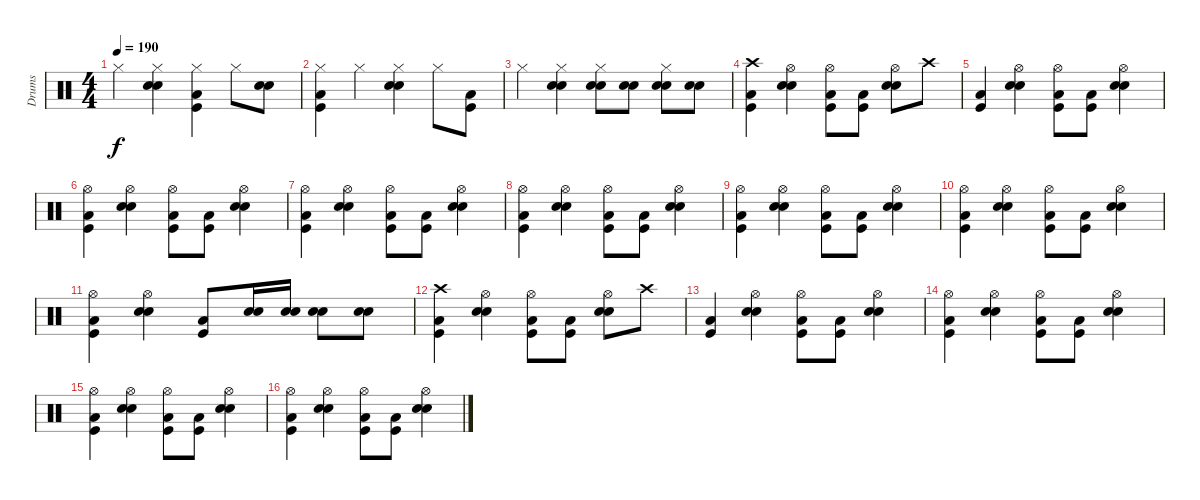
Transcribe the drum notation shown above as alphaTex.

\track ("Drums" "Drums") {instrument percussion}
\staff {score}
\articulation defaults
\ts (4 4)
\tempo 190
\clef neutral
\ks c "Hi-Hat (closed)".4{dy f}
("Hi-Hat (closed)" "Snare (hit) 2" "Electric Snare (hit)").4 ("Hi-Hat (closed)" "Kick (hit)" "Low Tom (hit)").4 "Hi-Hat (closed)".8 ("Snare (hit) 2" "Electric Snare (hit)").8 |
("Hi-Hat (closed)" "Kick (hit)" "Low Tom (hit)").4 "Hi-Hat (closed)".4 ("Hi-Hat (closed)" "Snare (hit) 2" "Electric Snare (hit)").4 "Hi-Hat (closed)".8 ("Kick (hit)" "Low Tom (hit)").8 |
"Hi-Hat (closed)".4 ("Hi-Hat (closed)" "Snare (hit) 2" "Electric Snare (hit)").4 ("Hi-Hat (closed)" "Snare (hit) 2" "Electric Snare (hit)").8 ("Snare (hit) 2" "Electric Snare (hit)").8 ("Hi-Hat (closed)" "Snare (hit) 2" "Electric Snare (hit)").8 ("Snare (hit) 2" "Electric Snare (hit)").8 |
("Crash high (hit)" "Kick (hit)" "Low Tom (hit)").4 ("Hi-Hat (open)" "Snare (hit) 2" "Electric Snare (hit)").4 ("Hi-Hat (open)" "Kick (hit)" "Low Tom (hit)").8 ("Kick (hit)" "Low Tom (hit)").8 ("Hi-Hat (open)" "Snare (hit) 2" "Electric Snare (hit)").8 "Crash high (hit)".8 |
("Kick (hit)" "Low Tom (hit)").4 ("Hi-Hat (open)" "Snare (hit) 2" "Electric Snare (hit)").4 ("Hi-Hat (open)" "Kick (hit)" "Low Tom (hit)").8 ("Kick (hit)" "Low Tom (hit)").8 ("Hi-Hat (open)" "Snare (hit) 2" "Electric Snare (hit)").4 |
("Hi-Hat (open)" "Kick (hit)" "Low Tom (hit)").4 ("Hi-Hat (open)" "Snare (hit) 2" "Electric Snare (hit)").4 ("Hi-Hat (open)" "Kick (hit)" "Low Tom (hit)").8 ("Kick (hit)" "Low Tom (hit)").8 ("Hi-Hat (open)" "Snare (hit) 2" "Electric Snare (hit)").4 |
("Hi-Hat (open)" "Kick (hit)" "Low Tom (hit)").4 ("Hi-Hat (open)" "Snare (hit) 2" "Electric Snare (hit)").4 ("Hi-Hat (open)" "Kick (hit)" "Low Tom (hit)").8 ("Kick (hit)" "Low Tom (hit)").8 ("Hi-Hat (open)" "Snare (hit) 2" "Electric Snare (hit)").4 |
("Hi-Hat (open)" "Kick (hit)" "Low Tom (hit)").4 ("Hi-Hat (open)" "Snare (hit) 2" "Electric Snare (hit)").4 ("Hi-Hat (open)" "Kick (hit)" "Low Tom (hit)").8 ("Kick (hit)" "Low Tom (hit)").8 ("Hi-Hat (open)" "Snare (hit) 2" "Electric Snare (hit)").4 |
("Hi-Hat (open)" "Kick (hit)" "Low Tom (hit)").4 ("Hi-Hat (open)" "Snare (hit) 2" "Electric Snare (hit)").4 ("Hi-Hat (open)" "Kick (hit)" "Low Tom (hit)").8 ("Kick (hit)" "Low Tom (hit)").8 ("Hi-Hat (open)" "Snare (hit) 2" "Electric Snare (hit)").4 |
("Hi-Hat (open)" "Kick (hit)" "Low Tom (hit)").4 ("Hi-Hat (open)" "Snare (hit) 2" "Electric Snare (hit)").4 ("Hi-Hat (open)" "Kick (hit)" "Low Tom (hit)").8 ("Kick (hit)" "Low Tom (hit)").8 ("Hi-Hat (open)" "Snare (hit) 2" "Electric Snare (hit)").4 |
("Hi-Hat (open)" "Kick (hit)" "Low Tom (hit)").4 ("Hi-Hat (open)" "Snare (hit) 2" "Electric Snare (hit)").4 ("Kick (hit)" "Low Tom (hit)").8 ("Snare (hit) 2" "Electric Snare (hit)").16 ("Snare (hit) 2" "Electric Snare (hit)").16 ("Snare (hit) 2" "Electric Snare (hit)").8 ("Snare (hit) 2" "Electric Snare (hit)").8 |
("Crash high (hit)" "Kick (hit)" "Low Tom (hit)").4 ("Hi-Hat (open)" "Snare (hit) 2" "Electric Snare (hit)").4 ("Hi-Hat (open)" "Kick (hit)" "Low Tom (hit)").8 ("Kick (hit)" "Low Tom (hit)").8 ("Hi-Hat (open)" "Snare (hit) 2" "Electric Snare (hit)").8 "Crash high (hit)".8 |
("Kick (hit)" "Low Tom (hit)").4 ("Hi-Hat (open)" "Snare (hit) 2" "Electric Snare (hit)").4 ("Hi-Hat (open)" "Kick (hit)" "Low Tom (hit)").8 ("Kick (hit)" "Low Tom (hit)").8 ("Hi-Hat (open)" "Snare (hit) 2" "Electric Snare (hit)").4 |
("Hi-Hat (open)" "Kick (hit)" "Low Tom (hit)").4 ("Hi-Hat (open)" "Snare (hit) 2" "Electric Snare (hit)").4 ("Hi-Hat (open)" "Kick (hit)" "Low Tom (hit)").8 ("Kick (hit)" "Low Tom (hit)").8 ("Hi-Hat (open)" "Snare (hit) 2" "Electric Snare (hit)").4 |
("Hi-Hat (open)" "Kick (hit)" "Low Tom (hit)").4 ("Hi-Hat (open)" "Snare (hit) 2" "Electric Snare (hit)").4 ("Hi-Hat (open)" "Kick (hit)" "Low Tom (hit)").8 ("Kick (hit)" "Low Tom (hit)").8 ("Hi-Hat (open)" "Snare (hit) 2" "Electric Snare (hit)").4 |
("Hi-Hat (open)" "Kick (hit)" "Low Tom (hit)").4 ("Hi-Hat (open)" "Snare (hit) 2" "Electric Snare (hit)").4 ("Hi-Hat (open)" "Kick (hit)" "Low Tom (hit)").8 ("Kick (hit)" "Low Tom (hit)").8 ("Hi-Hat (open)" "Snare (hit) 2" "Electric Snare (hit)").4
